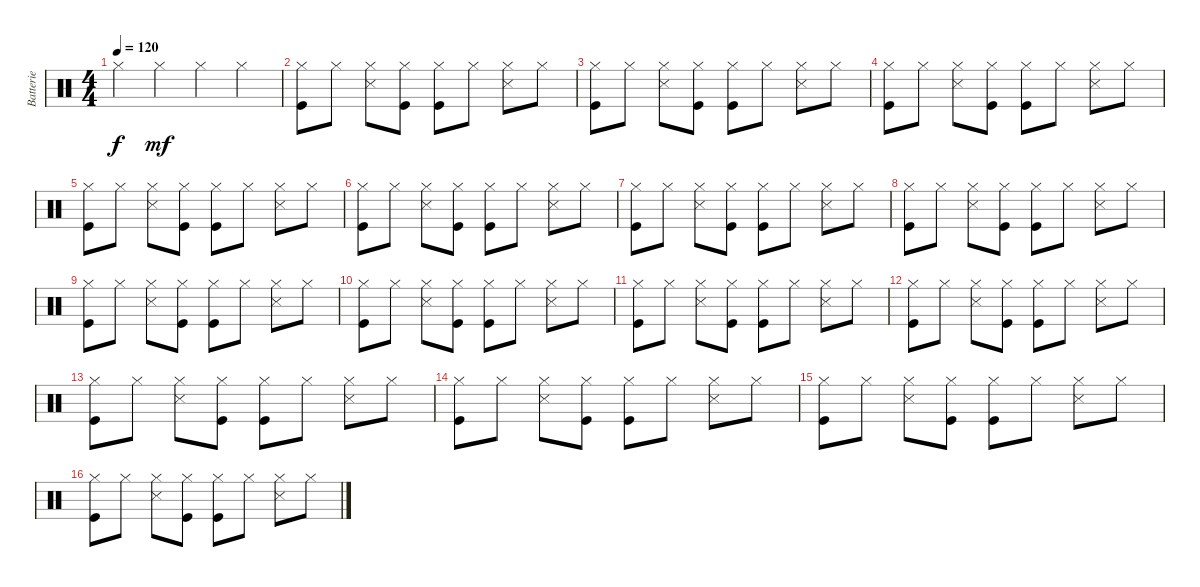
\track ("Batterie" "Batterie") {instrument percussion}
\staff {score}
\articulation defaults
\ts (4 4)
\tempo 120
\clef neutral
\ks c "Hi-Hat (closed)".4{dy f} "Hi-Hat (closed)".4{dy mf} "Hi-Hat (closed)".4 "Hi-Hat (closed)".4
|
("Hi-Hat (closed)" "Kick (hit)").8 "Hi-Hat (closed)".8 ("Hi-Hat (closed)" "Snare (side stick) 3").8 ("Hi-Hat (closed)" "Kick (hit)").8 ("Hi-Hat (closed)" "Kick (hit)").8 "Hi-Hat (closed)".8 ("Hi-Hat (closed)" "Snare (side stick) 3").8 "Hi-Hat (closed)".8 |
("Hi-Hat (closed)" "Kick (hit)").8 "Hi-Hat (closed)".8 ("Hi-Hat (closed)" "Snare (side stick) 3").8 ("Hi-Hat (closed)" "Kick (hit)").8 ("Hi-Hat (closed)" "Kick (hit)").8 "Hi-Hat (closed)".8 ("Hi-Hat (closed)" "Snare (side stick) 3").8 "Hi-Hat (closed)".8 |
("Hi-Hat (closed)" "Kick (hit)").8 "Hi-Hat (closed)".8 ("Hi-Hat (closed)" "Snare (side stick) 3").8 ("Hi-Hat (closed)" "Kick (hit)").8 ("Hi-Hat (closed)" "Kick (hit)").8 "Hi-Hat (closed)".8 ("Hi-Hat (closed)" "Snare (side stick) 3").8 "Hi-Hat (closed)".8 |
("Hi-Hat (closed)" "Kick (hit)").8 "Hi-Hat (closed)".8 ("Hi-Hat (closed)" "Snare (side stick) 3").8 ("Hi-Hat (closed)" "Kick (hit)").8 ("Hi-Hat (closed)" "Kick (hit)").8 "Hi-Hat (closed)".8 ("Hi-Hat (closed)" "Snare (side stick) 3").8 "Hi-Hat (closed)".8 |
("Hi-Hat (closed)" "Kick (hit)").8 "Hi-Hat (closed)".8 ("Hi-Hat (closed)" "Snare (side stick) 3").8 ("Hi-Hat (closed)" "Kick (hit)").8 ("Hi-Hat (closed)" "Kick (hit)").8 "Hi-Hat (closed)".8 ("Hi-Hat (closed)" "Snare (side stick) 3").8 "Hi-Hat (closed)".8 |
("Hi-Hat (closed)" "Kick (hit)").8 "Hi-Hat (closed)".8 ("Hi-Hat (closed)" "Snare (side stick) 3").8 ("Hi-Hat (closed)" "Kick (hit)").8 ("Hi-Hat (closed)" "Kick (hit)").8 "Hi-Hat (closed)".8 ("Hi-Hat (closed)" "Snare (side stick) 3").8 "Hi-Hat (closed)".8 |
("Hi-Hat (closed)" "Kick (hit)").8 "Hi-Hat (closed)".8 ("Hi-Hat (closed)" "Snare (side stick) 3").8 ("Hi-Hat (closed)" "Kick (hit)").8 ("Hi-Hat (closed)" "Kick (hit)").8 "Hi-Hat (closed)".8 ("Hi-Hat (closed)" "Snare (side stick) 3").8 "Hi-Hat (closed)".8 |
("Hi-Hat (closed)" "Kick (hit)").8 "Hi-Hat (closed)".8 ("Hi-Hat (closed)" "Snare (side stick) 3").8 ("Hi-Hat (closed)" "Kick (hit)").8 ("Hi-Hat (closed)" "Kick (hit)").8 "Hi-Hat (closed)".8 ("Hi-Hat (closed)" "Snare (side stick) 3").8 "Hi-Hat (closed)".8 |
("Hi-Hat (closed)" "Kick (hit)").8 "Hi-Hat (closed)".8 ("Hi-Hat (closed)" "Snare (side stick) 3").8 ("Hi-Hat (closed)" "Kick (hit)").8 ("Hi-Hat (closed)" "Kick (hit)").8 "Hi-Hat (closed)".8 ("Hi-Hat (closed)" "Snare (side stick) 3").8 "Hi-Hat (closed)".8 |
("Hi-Hat (closed)" "Kick (hit)").8 "Hi-Hat (closed)".8 ("Hi-Hat (closed)" "Snare (side stick) 3").8 ("Hi-Hat (closed)" "Kick (hit)").8 ("Hi-Hat (closed)" "Kick (hit)").8 "Hi-Hat (closed)".8 ("Hi-Hat (closed)" "Snare (side stick) 3").8 "Hi-Hat (closed)".8 |
("Hi-Hat (closed)" "Kick (hit)").8 "Hi-Hat (closed)".8 ("Hi-Hat (closed)" "Snare (side stick) 3").8 ("Hi-Hat (closed)" "Kick (hit)").8 ("Hi-Hat (closed)" "Kick (hit)").8 "Hi-Hat (closed)".8 ("Hi-Hat (closed)" "Snare (side stick) 3").8 "Hi-Hat (closed)".8 |
("Hi-Hat (closed)" "Kick (hit)").8 "Hi-Hat (closed)".8 ("Hi-Hat (closed)" "Snare (side stick) 3").8 ("Hi-Hat (closed)" "Kick (hit)").8 ("Hi-Hat (closed)" "Kick (hit)").8 "Hi-Hat (closed)".8 ("Hi-Hat (closed)" "Snare (side stick) 3").8 "Hi-Hat (closed)".8 |
("Hi-Hat (closed)" "Kick (hit)").8 "Hi-Hat (closed)".8 ("Hi-Hat (closed)" "Snare (side stick) 3").8 ("Hi-Hat (closed)" "Kick (hit)").8 ("Hi-Hat (closed)" "Kick (hit)").8 "Hi-Hat (closed)".8 ("Hi-Hat (closed)" "Snare (side stick) 3").8 "Hi-Hat (closed)".8 |
("Hi-Hat (closed)" "Kick (hit)").8 "Hi-Hat (closed)".8 ("Hi-Hat (closed)" "Snare (side stick) 3").8 ("Hi-Hat (closed)" "Kick (hit)").8 ("Hi-Hat (closed)" "Kick (hit)").8 "Hi-Hat (closed)".8 ("Hi-Hat (closed)" "Snare (side stick) 3").8 "Hi-Hat (closed)".8 |
("Hi-Hat (closed)" "Kick (hit)").8 "Hi-Hat (closed)".8 ("Hi-Hat (closed)" "Snare (side stick) 3").8 ("Hi-Hat (closed)" "Kick (hit)").8 ("Hi-Hat (closed)" "Kick (hit)").8 "Hi-Hat (closed)".8 ("Hi-Hat (closed)" "Snare (side stick) 3").8 "Hi-Hat (closed)".8
